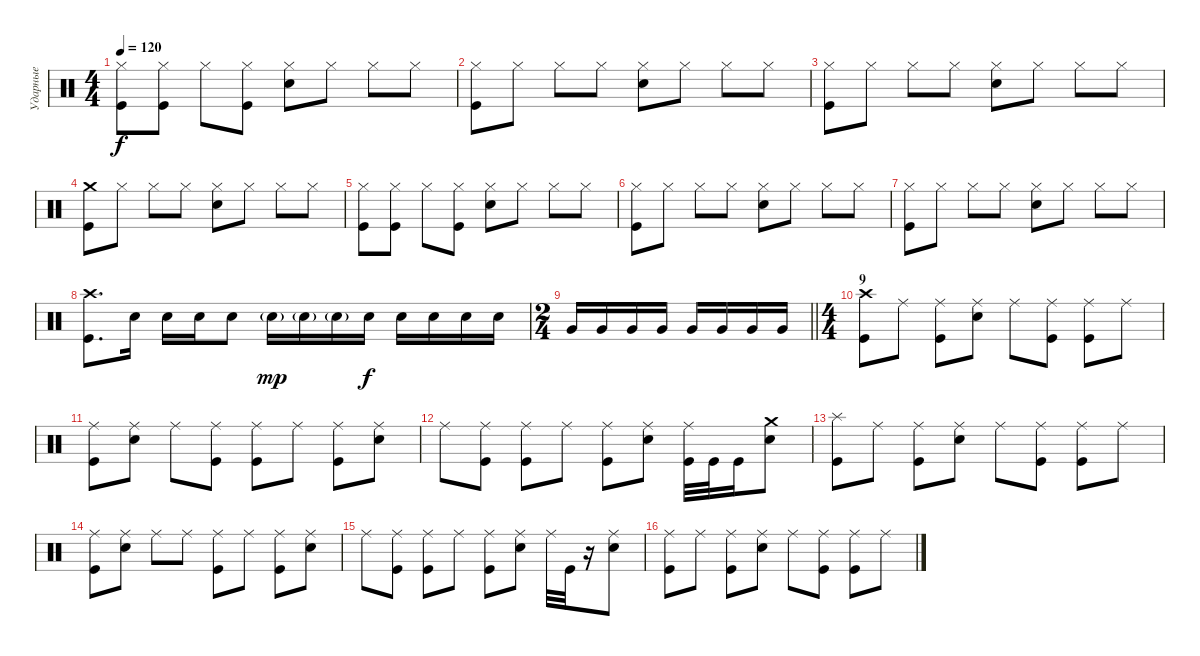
\track ("Ударные" "Ударные") {instrument percussion}
\staff {score}
\articulation defaults
\ts (4 4)
\tempo 120
\clef neutral
\ks c
("Hi-Hat (closed)" "Kick (hit)").8{dy f} ("Hi-Hat (closed)" "Kick (hit)").8 "Hi-Hat (closed)".8 ("Hi-Hat (closed)" "Kick (hit)").8 ("Hi-Hat (closed)" "Electric Snare (hit)").8 "Hi-Hat (closed)".8 "Hi-Hat (closed)".8 "Hi-Hat (closed)".8 |
("Hi-Hat (closed)" "Kick (hit)").8 "Hi-Hat (closed)".8 "Hi-Hat (closed)".8 "Hi-Hat (closed)".8 ("Hi-Hat (closed)" "Electric Snare (hit)").8 "Hi-Hat (closed)".8 "Hi-Hat (closed)".8 "Hi-Hat (closed)".8 |
("Hi-Hat (closed)" "Kick (hit)").8 "Hi-Hat (closed)".8 "Hi-Hat (closed)".8 "Hi-Hat (closed)".8 ("Hi-Hat (closed)" "Electric Snare (hit)").8 "Hi-Hat (closed)".8 "Hi-Hat (closed)".8 "Hi-Hat (closed)".8 |
("Crash medium (hit)" "Kick (hit)").8 "Hi-Hat (closed)".8 "Hi-Hat (closed)".8 "Hi-Hat (closed)".8 ("Hi-Hat (closed)" "Electric Snare (hit)").8 "Hi-Hat (closed)".8 "Hi-Hat (closed)".8 "Hi-Hat (closed)".8 |
("Hi-Hat (closed)" "Kick (hit)").8 ("Hi-Hat (closed)" "Kick (hit)").8 "Hi-Hat (closed)".8 ("Hi-Hat (closed)" "Kick (hit)").8 ("Hi-Hat (closed)" "Electric Snare (hit)").8 "Hi-Hat (closed)".8 "Hi-Hat (closed)".8 "Hi-Hat (closed)".8 |
("Hi-Hat (closed)" "Kick (hit)").8 "Hi-Hat (closed)".8 "Hi-Hat (closed)".8 "Hi-Hat (closed)".8 ("Hi-Hat (closed)" "Electric Snare (hit)").8 "Hi-Hat (closed)".8 "Hi-Hat (closed)".8 "Hi-Hat (closed)".8 |
("Hi-Hat (closed)" "Kick (hit)").8 "Hi-Hat (closed)".8 "Hi-Hat (closed)".8 "Hi-Hat (closed)".8 ("Hi-Hat (closed)" "Electric Snare (hit)").8 "Hi-Hat (closed)".8 "Hi-Hat (closed)".8 "Hi-Hat (closed)".8 |
("Crash high (hit)" "Kick (hit)").8{d} "Electric Snare (hit)".16 "Electric Snare (hit)".16 "Electric Snare (hit)".16 "Electric Snare (hit)".8 "Electric Snare (hit)"{g}.16{dy mp} "Electric Snare (hit)"{g}.16 "Electric Snare (hit)"{g}.16 "Electric Snare (hit)".16{dy f} "Electric Snare (hit)".16 "Electric Snare (hit)".16 "Electric Snare (hit)".16 "Electric Snare (hit)".16 |
\ts (2 4)
\barLineRight lightlight "Very Low Tom (hit)".16 "Very Low Tom (hit)".16 "Very Low Tom (hit)".16 "Very Low Tom (hit)".16 "Very Low Tom (hit)".16 "Very Low Tom (hit)".16 "Very Low Tom (hit)".16 "Very Low Tom (hit)".16
|
\ts (4 4)
\section ("" "9")
("Crash high (hit)" "Kick (hit)").8 "Ride (middle)".8 ("Ride (middle)" "Kick (hit)").8 ("Ride (middle)" "Electric Snare (hit)").8 "Ride (middle)".8 ("Ride (middle)" "Kick (hit)").8 ("Ride (middle)" "Kick (hit)").8 "Ride (middle)".8 |
("Ride (middle)" "Kick (hit)").8 ("Ride (middle)" "Electric Snare (hit)").8 "Ride (middle)".8 ("Ride (middle)" "Kick (hit)").8 ("Ride (middle)" "Kick (hit)").8 "Ride (middle)".8 ("Ride (middle)" "Kick (hit)").8 ("Ride (middle)" "Electric Snare (hit)").8 |
"Ride (middle)".8 ("Ride (middle)" "Kick (hit)").8 ("Ride (middle)" "Kick (hit)").8 "Ride (middle)".8 ("Ride (middle)" "Kick (hit)").8 ("Ride (middle)" "Electric Snare (hit)").8 ("Ride (middle)" "Kick (hit)").32 "Kick (hit)".32 "Kick (hit)".16 ("Crash medium (hit)" "Electric Snare (hit)").8 |
("Splash (hit)" "Kick (hit)").8 "Ride (middle)".8 ("Ride (middle)" "Kick (hit)").8 ("Ride (middle)" "Electric Snare (hit)").8 "Ride (middle)".8 ("Ride (middle)" "Kick (hit)").8 ("Ride (middle)" "Kick (hit)").8 "Ride (middle)".8 |
("Ride (middle)" "Kick (hit)").8 ("Ride (middle)" "Electric Snare (hit)").8 "Ride (middle)".8 "Ride (middle)".8 ("Ride (middle)" "Kick (hit)").8 "Ride (middle)".8 ("Ride (middle)" "Kick (hit)").8 ("Ride (middle)" "Electric Snare (hit)").8 |
"Ride (middle)".8 ("Ride (middle)" "Kick (hit)").8 ("Ride (middle)" "Kick (hit)").8 "Ride (middle)".8 ("Ride (middle)" "Kick (hit)").8 ("Ride (middle)" "Electric Snare (hit)").8 "Ride (middle)".32 "Kick (hit)".32 r.16 ("Ride (middle)" "Electric Snare (hit)").8 |
("Ride (middle)" "Kick (hit)").8 "Ride (middle)".8 ("Ride (middle)" "Kick (hit)").8 ("Ride (middle)" "Electric Snare (hit)").8 "Ride (middle)".8 ("Ride (middle)" "Kick (hit)").8 ("Ride (middle)" "Kick (hit)").8 "Ride (middle)".8
